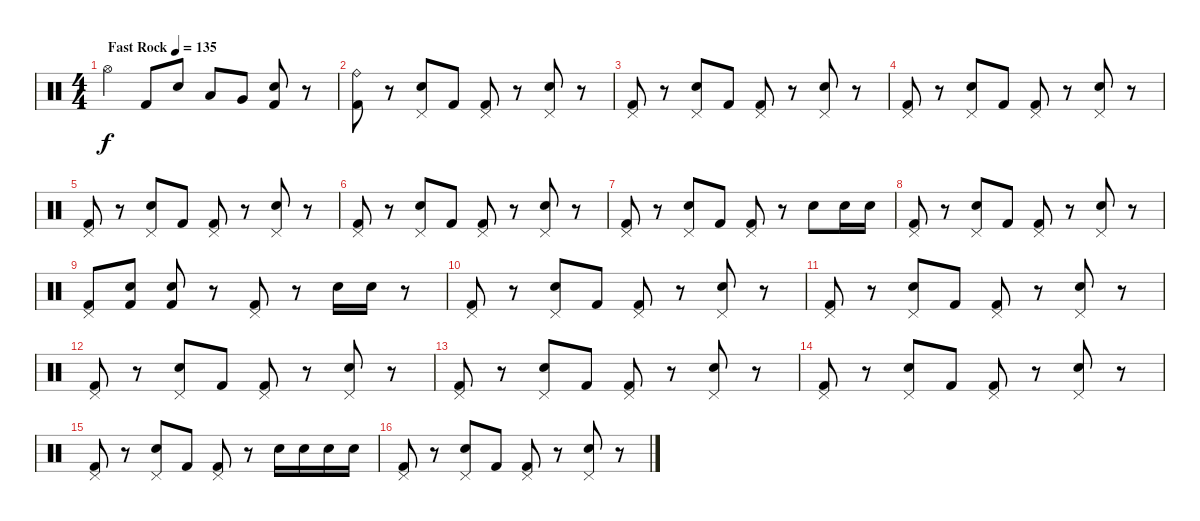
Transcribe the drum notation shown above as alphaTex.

\track "" {instrument percussion}
\staff {score}
\articulation defaults
\ts (4 4)
\tempo (135 "Fast Rock")
\clef neutral
\ks c "Hi-Hat (open)".4{dy f} "Kick (hit) 2".8 "Electric Snare (hit)".8 "Low Floor Tom (hit)".8 "Very Low Tom (hit)".8
("Electric Snare (hit)" "Kick (hit) 2").8 r.8 |
("Kick (hit) 2" "Ride (bell)").8 r.8 ("Electric Snare (hit)" "Pedal Hi-Hat (hit)").8 "Kick (hit) 2".8 ("Kick (hit) 2" "Pedal Hi-Hat (hit)").8 r.8 ("Electric Snare (hit)" "Pedal Hi-Hat (hit)").8 r.8 |
("Kick (hit) 2" "Pedal Hi-Hat (hit)").8 r.8 ("Electric Snare (hit)" "Pedal Hi-Hat (hit)").8 "Kick (hit) 2".8 ("Kick (hit) 2" "Pedal Hi-Hat (hit)").8 r.8 ("Electric Snare (hit)" "Pedal Hi-Hat (hit)").8 r.8 |
("Kick (hit) 2" "Pedal Hi-Hat (hit)").8 r.8 ("Electric Snare (hit)" "Pedal Hi-Hat (hit)").8 "Kick (hit) 2".8 ("Kick (hit) 2" "Pedal Hi-Hat (hit)").8 r.8 ("Electric Snare (hit)" "Pedal Hi-Hat (hit)").8 r.8 |
("Kick (hit) 2" "Pedal Hi-Hat (hit)").8 r.8 ("Electric Snare (hit)" "Pedal Hi-Hat (hit)").8 "Kick (hit) 2".8 ("Kick (hit) 2" "Pedal Hi-Hat (hit)").8 r.8 ("Electric Snare (hit)" "Pedal Hi-Hat (hit)").8 r.8 |
("Kick (hit) 2" "Pedal Hi-Hat (hit)").8 r.8 ("Electric Snare (hit)" "Pedal Hi-Hat (hit)").8 "Kick (hit) 2".8 ("Kick (hit) 2" "Pedal Hi-Hat (hit)").8 r.8 ("Electric Snare (hit)" "Pedal Hi-Hat (hit)").8 r.8 |
("Kick (hit) 2" "Pedal Hi-Hat (hit)").8 r.8 ("Electric Snare (hit)" "Pedal Hi-Hat (hit)").8 "Kick (hit) 2".8 ("Kick (hit) 2" "Pedal Hi-Hat (hit)").8 r.8 "Electric Snare (hit)".8 "Electric Snare (hit)".16 "Electric Snare (hit)".16 |
("Kick (hit) 2" "Pedal Hi-Hat (hit)").8 r.8 ("Electric Snare (hit)" "Pedal Hi-Hat (hit)").8 "Kick (hit) 2".8 ("Kick (hit) 2" "Pedal Hi-Hat (hit)").8 r.8 ("Electric Snare (hit)" "Pedal Hi-Hat (hit)").8 r.8 |
("Kick (hit) 2" "Pedal Hi-Hat (hit)").8 ("Electric Snare (hit)" "Kick (hit) 2").8 ("Electric Snare (hit)" "Kick (hit) 2").8 r.8 ("Kick (hit) 2" "Pedal Hi-Hat (hit)").8 r.8 "Electric Snare (hit)".16 "Electric Snare (hit)".16 r.8 |
("Kick (hit) 2" "Pedal Hi-Hat (hit)").8 r.8 ("Electric Snare (hit)" "Pedal Hi-Hat (hit)").8 "Kick (hit) 2".8 ("Kick (hit) 2" "Pedal Hi-Hat (hit)").8 r.8 ("Electric Snare (hit)" "Pedal Hi-Hat (hit)").8 r.8 |
("Kick (hit) 2" "Pedal Hi-Hat (hit)").8 r.8 ("Electric Snare (hit)" "Pedal Hi-Hat (hit)").8 "Kick (hit) 2".8 ("Kick (hit) 2" "Pedal Hi-Hat (hit)").8 r.8 ("Electric Snare (hit)" "Pedal Hi-Hat (hit)").8 r.8 |
("Kick (hit) 2" "Pedal Hi-Hat (hit)").8 r.8 ("Electric Snare (hit)" "Pedal Hi-Hat (hit)").8 "Kick (hit) 2".8 ("Kick (hit) 2" "Pedal Hi-Hat (hit)").8 r.8 ("Electric Snare (hit)" "Pedal Hi-Hat (hit)").8 r.8 |
("Kick (hit) 2" "Pedal Hi-Hat (hit)").8 r.8 ("Electric Snare (hit)" "Pedal Hi-Hat (hit)").8 "Kick (hit) 2".8 ("Kick (hit) 2" "Pedal Hi-Hat (hit)").8 r.8 ("Electric Snare (hit)" "Pedal Hi-Hat (hit)").8 r.8 |
("Kick (hit) 2" "Pedal Hi-Hat (hit)").8 r.8 ("Electric Snare (hit)" "Pedal Hi-Hat (hit)").8 "Kick (hit) 2".8 ("Kick (hit) 2" "Pedal Hi-Hat (hit)").8 r.8 ("Electric Snare (hit)" "Pedal Hi-Hat (hit)").8 r.8 |
("Kick (hit) 2" "Pedal Hi-Hat (hit)").8 r.8 ("Electric Snare (hit)" "Pedal Hi-Hat (hit)").8 "Kick (hit) 2".8 ("Kick (hit) 2" "Pedal Hi-Hat (hit)").8 r.8 "Electric Snare (hit)".16 "Electric Snare (hit)".16 "Electric Snare (hit)".16 "Electric Snare (hit)".16 |
("Kick (hit) 2" "Pedal Hi-Hat (hit)").8 r.8 ("Electric Snare (hit)" "Pedal Hi-Hat (hit)").8 "Kick (hit) 2".8 ("Kick (hit) 2" "Pedal Hi-Hat (hit)").8 r.8 ("Electric Snare (hit)" "Pedal Hi-Hat (hit)").8 r.8
